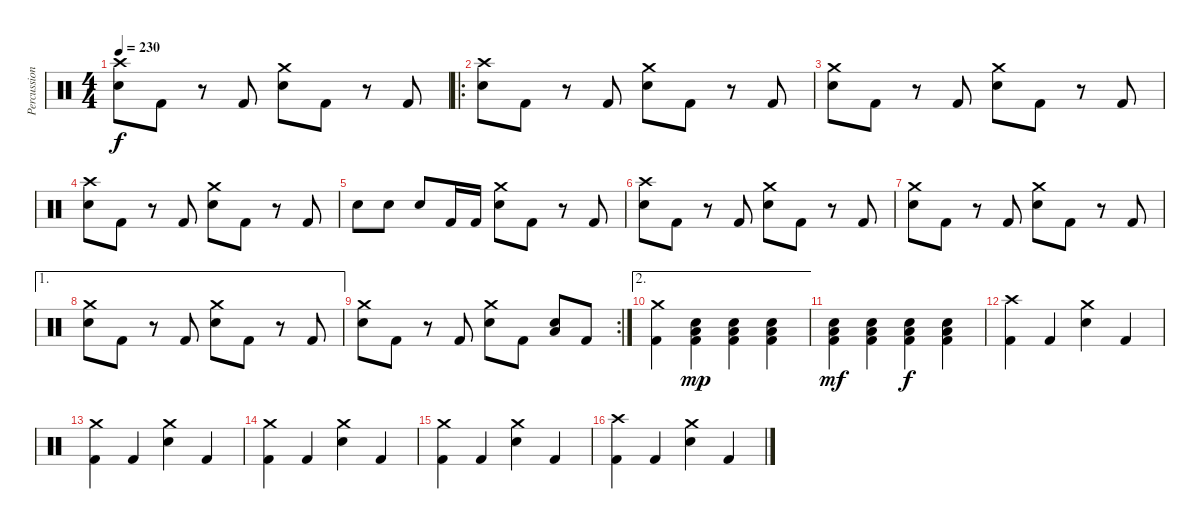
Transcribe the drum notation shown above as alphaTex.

\track ("Percussions" "Percussion") {instrument percussion}
\staff {score}
\articulation defaults
\ts (4 4)
\tempo 230
\clef neutral
\ks c
("Electric Snare (hit)" "Crash high (hit)").8{dy f} "Kick (hit) 2".8 r.8 "Kick (hit) 2".8 ("Electric Snare (hit)" "Crash medium (hit)").8 "Kick (hit) 2".8 r.8 "Kick (hit) 2".8 |
\ro
("Electric Snare (hit)" "Crash high (hit)").8 "Kick (hit) 2".8 r.8 "Kick (hit) 2".8 ("Electric Snare (hit)" "Crash medium (hit)").8 "Kick (hit) 2".8 r.8 "Kick (hit) 2".8 |
("Electric Snare (hit)" "Crash medium (hit)").8 "Kick (hit) 2".8 r.8 "Kick (hit) 2".8 ("Electric Snare (hit)" "Crash medium (hit)").8 "Kick (hit) 2".8 r.8 "Kick (hit) 2".8 |
("Electric Snare (hit)" "Crash high (hit)").8 "Kick (hit) 2".8 r.8 "Kick (hit) 2".8 ("Electric Snare (hit)" "Crash medium (hit)").8 "Kick (hit) 2".8 r.8 "Kick (hit) 2".8 |
"Electric Snare (hit)".8 "Electric Snare (hit)".8 "Electric Snare (hit)".8 "Kick (hit) 2".16 "Kick (hit) 2".16 ("Electric Snare (hit)" "Crash medium (hit)").8 "Kick (hit) 2".8 r.8 "Kick (hit) 2".8 |
("Electric Snare (hit)" "Crash high (hit)").8 "Kick (hit) 2".8 r.8 "Kick (hit) 2".8 ("Electric Snare (hit)" "Crash medium (hit)").8 "Kick (hit) 2".8 r.8 "Kick (hit) 2".8 |
("Electric Snare (hit)" "Crash medium (hit)").8 "Kick (hit) 2".8 r.8 "Kick (hit) 2".8 ("Electric Snare (hit)" "Crash medium (hit)").8 "Kick (hit) 2".8 r.8 "Kick (hit) 2".8 |
\ae 1
("Electric Snare (hit)" "Crash medium (hit)").8 "Kick (hit) 2".8 r.8 "Kick (hit) 2".8 ("Electric Snare (hit)" "Crash medium (hit)").8 "Kick (hit) 2".8 r.8 "Kick (hit) 2".8 |
\rc 2
("Electric Snare (hit)" "Crash medium (hit)").8 "Kick (hit) 2".8 r.8 "Kick (hit) 2".8 ("Electric Snare (hit)" "Crash medium (hit)").8 "Kick (hit) 2".8 ("Electric Snare (hit)" "Low Tom (hit)").8 "Kick (hit) 2".8 |
\ae 2
("Kick (hit) 2" "Crash medium (hit)").4 ("Kick (hit) 2" "Electric Snare (hit)" "Low Tom (hit)").4{dy mp} ("Kick (hit) 2" "Electric Snare (hit)" "Low Tom (hit)").4 ("Kick (hit) 2" "Electric Snare (hit)" "Low Tom (hit)").4 |
("Kick (hit) 2" "Electric Snare (hit)" "Low Tom (hit)").4{dy mf} ("Kick (hit) 2" "Electric Snare (hit)" "Low Tom (hit)").4 ("Kick (hit) 2" "Electric Snare (hit)" "Low Tom (hit)").4{dy f} ("Kick (hit) 2" "Electric Snare (hit)" "Low Tom (hit)").4 |
("Kick (hit) 2" "Crash high (hit)").4 "Kick (hit) 2".4 ("Electric Snare (hit)" "Crash medium (hit)").4 "Kick (hit) 2".4 |
("Kick (hit) 2" "Crash medium (hit)").4 "Kick (hit) 2".4 ("Electric Snare (hit)" "Crash medium (hit)").4 "Kick (hit) 2".4 |
("Kick (hit) 2" "Crash medium (hit)").4 "Kick (hit) 2".4 ("Electric Snare (hit)" "Crash medium (hit)").4 "Kick (hit) 2".4 |
("Kick (hit) 2" "Crash medium (hit)").4 "Kick (hit) 2".4 ("Electric Snare (hit)" "Crash medium (hit)").4 "Kick (hit) 2".4 |
("Kick (hit) 2" "Crash high (hit)").4 "Kick (hit) 2".4 ("Electric Snare (hit)" "Crash medium (hit)").4 "Kick (hit) 2".4
